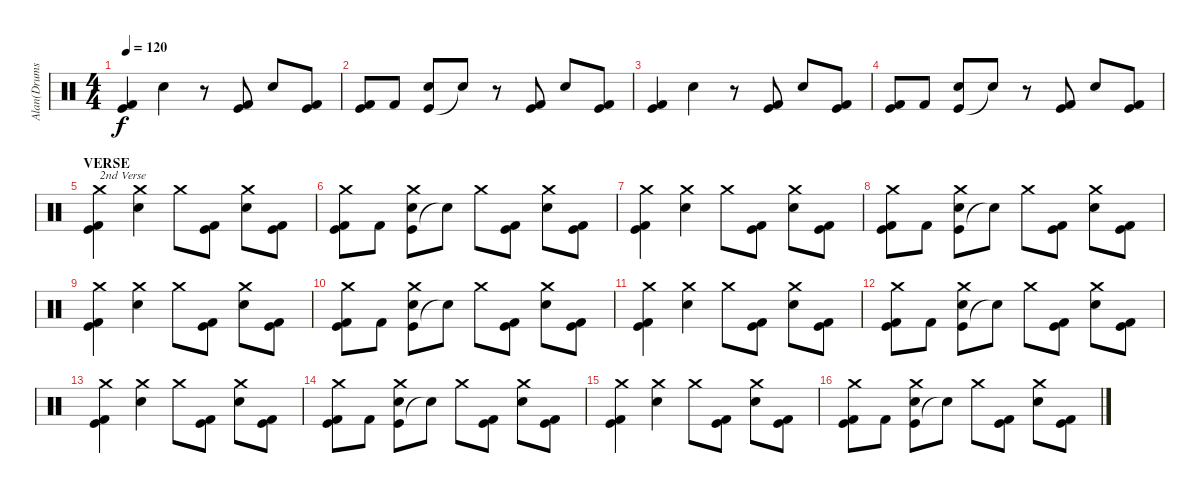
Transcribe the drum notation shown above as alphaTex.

\track ("Alan(Drums)" "Alan(Drums") {instrument percussion}
\staff {score}
\articulation defaults
\ts (4 4)
\tempo 120
\clef neutral
\ks c
("Kick (hit) 2" "Kick (hit)").4{dy f} "Electric Snare (hit)".4 r.8 ("Kick (hit)" "Kick (hit) 2").8 "Electric Snare (hit)".8 ("Kick (hit)" "Kick (hit) 2").8 |
("Kick (hit)" "Kick (hit) 2").8 "Kick (hit) 2".8 ("Kick (hit)" "Electric Snare (hit)").8 "Snare (hit)"{t}.8 r.8 ("Kick (hit)" "Kick (hit) 2").8 "Electric Snare (hit)".8 ("Kick (hit)" "Kick (hit) 2").8 |
("Kick (hit) 2" "Kick (hit)").4 "Electric Snare (hit)".4 r.8 ("Kick (hit)" "Kick (hit) 2").8 "Electric Snare (hit)".8 ("Kick (hit)" "Kick (hit) 2").8 |
("Kick (hit)" "Kick (hit) 2").8 "Kick (hit) 2".8 ("Kick (hit)" "Electric Snare (hit)").8 "Snare (hit)"{t}.8 r.8 ("Kick (hit)" "Kick (hit) 2").8 "Electric Snare (hit)".8 ("Kick (hit)" "Kick (hit) 2").8 |
\section ("" "VERSE")
("Kick (hit) 2" "Kick (hit)" "Crash medium (hit)").4{txt "2nd Verse"} ("Electric Snare (hit)" "Crash medium (hit)").4 "Crash medium (hit)".8 ("Kick (hit)" "Kick (hit) 2").8 ("Electric Snare (hit)" "Crash medium (hit)").8 ("Kick (hit)" "Kick (hit) 2").8 |
("Kick (hit)" "Kick (hit) 2" "Crash medium (hit)").8 "Kick (hit) 2".8 ("Kick (hit)" "Electric Snare (hit)" "Crash medium (hit)").8 "Snare (hit)"{t}.8 "Crash medium (hit)".8 ("Kick (hit)" "Kick (hit) 2").8 ("Electric Snare (hit)" "Crash medium (hit)").8 ("Kick (hit)" "Kick (hit) 2").8 |
("Kick (hit) 2" "Kick (hit)" "Crash medium (hit)").4 ("Electric Snare (hit)" "Crash medium (hit)").4 "Crash medium (hit)".8 ("Kick (hit)" "Kick (hit) 2").8 ("Electric Snare (hit)" "Crash medium (hit)").8 ("Kick (hit)" "Kick (hit) 2").8 |
("Kick (hit)" "Kick (hit) 2" "Crash medium (hit)").8 "Kick (hit) 2".8 ("Kick (hit)" "Electric Snare (hit)" "Crash medium (hit)").8 "Snare (hit)"{t}.8 "Crash medium (hit)".8 ("Kick (hit)" "Kick (hit) 2").8 ("Electric Snare (hit)" "Crash medium (hit)").8 ("Kick (hit)" "Kick (hit) 2").8 |
("Kick (hit) 2" "Kick (hit)" "Crash medium (hit)").4 ("Electric Snare (hit)" "Crash medium (hit)").4 "Crash medium (hit)".8 ("Kick (hit)" "Kick (hit) 2").8 ("Electric Snare (hit)" "Crash medium (hit)").8 ("Kick (hit)" "Kick (hit) 2").8 |
("Kick (hit)" "Kick (hit) 2" "Crash medium (hit)").8 "Kick (hit) 2".8 ("Kick (hit)" "Electric Snare (hit)" "Crash medium (hit)").8 "Snare (hit)"{t}.8 "Crash medium (hit)".8 ("Kick (hit)" "Kick (hit) 2").8 ("Electric Snare (hit)" "Crash medium (hit)").8 ("Kick (hit)" "Kick (hit) 2").8 |
("Kick (hit) 2" "Kick (hit)" "Crash medium (hit)").4 ("Electric Snare (hit)" "Crash medium (hit)").4 "Crash medium (hit)".8 ("Kick (hit)" "Kick (hit) 2").8 ("Electric Snare (hit)" "Crash medium (hit)").8 ("Kick (hit)" "Kick (hit) 2").8 |
("Kick (hit)" "Kick (hit) 2" "Crash medium (hit)").8 "Kick (hit) 2".8 ("Kick (hit)" "Electric Snare (hit)" "Crash medium (hit)").8 "Snare (hit)"{t}.8 "Crash medium (hit)".8 ("Kick (hit)" "Kick (hit) 2").8 ("Electric Snare (hit)" "Crash medium (hit)").8 ("Kick (hit)" "Kick (hit) 2").8 |
("Kick (hit) 2" "Kick (hit)" "Crash medium (hit)").4 ("Electric Snare (hit)" "Crash medium (hit)").4 "Crash medium (hit)".8 ("Kick (hit)" "Kick (hit) 2").8 ("Electric Snare (hit)" "Crash medium (hit)").8 ("Kick (hit)" "Kick (hit) 2").8 |
("Kick (hit)" "Kick (hit) 2" "Crash medium (hit)").8 "Kick (hit) 2".8 ("Kick (hit)" "Electric Snare (hit)" "Crash medium (hit)").8 "Snare (hit)"{t}.8 "Crash medium (hit)".8 ("Kick (hit)" "Kick (hit) 2").8 ("Electric Snare (hit)" "Crash medium (hit)").8 ("Kick (hit)" "Kick (hit) 2").8 |
("Kick (hit) 2" "Kick (hit)" "Crash medium (hit)").4 ("Electric Snare (hit)" "Crash medium (hit)").4 "Crash medium (hit)".8 ("Kick (hit)" "Kick (hit) 2").8 ("Electric Snare (hit)" "Crash medium (hit)").8 ("Kick (hit)" "Kick (hit) 2").8 |
("Kick (hit)" "Kick (hit) 2" "Crash medium (hit)").8 "Kick (hit) 2".8 ("Kick (hit)" "Electric Snare (hit)" "Crash medium (hit)").8 "Snare (hit)"{t}.8 "Crash medium (hit)".8 ("Kick (hit)" "Kick (hit) 2").8 ("Electric Snare (hit)" "Crash medium (hit)").8 ("Kick (hit)" "Kick (hit) 2").8
